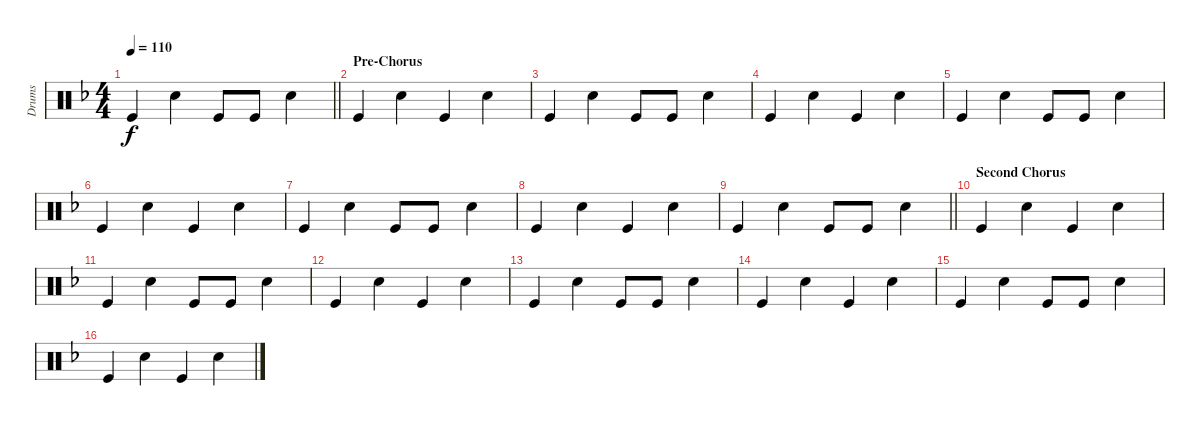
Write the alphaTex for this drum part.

\track ("Drums" "Drums") {instrument percussion}
\staff {score}
\articulation defaults
\ts (4 4)
\tempo 110
\clef neutral
\barLineRight lightlight
\ks dminor "Kick (hit)".4{dy f} "Snare (hit) 2".4 "Kick (hit)".8 "Kick (hit)".8 "Snare (hit) 2".4
|
\section ("" "Pre-Chorus")
\ks f "Kick (hit)".4 "Snare (hit) 2".4 "Kick (hit)".4 "Snare (hit) 2".4
|
"Kick (hit)".4 "Snare (hit) 2".4 "Kick (hit)".8 "Kick (hit)".8 "Snare (hit) 2".4 |
"Kick (hit)".4 "Snare (hit) 2".4 "Kick (hit)".4 "Snare (hit) 2".4 |
"Kick (hit)".4 "Snare (hit) 2".4 "Kick (hit)".8 "Kick (hit)".8 "Snare (hit) 2".4 |
\ks dminor "Kick (hit)".4 "Snare (hit) 2".4 "Kick (hit)".4 "Snare (hit) 2".4
|
"Kick (hit)".4 "Snare (hit) 2".4 "Kick (hit)".8 "Kick (hit)".8 "Snare (hit) 2".4 |
"Kick (hit)".4 "Snare (hit) 2".4 "Kick (hit)".4 "Snare (hit) 2".4 |
\barLineRight lightlight "Kick (hit)".4 "Snare (hit) 2".4 "Kick (hit)".8 "Kick (hit)".8 "Snare (hit) 2".4
|
\section ("" "Second Chorus")
"Kick (hit)".4 "Snare (hit) 2".4 "Kick (hit)".4 "Snare (hit) 2".4 |
"Kick (hit)".4 "Snare (hit) 2".4 "Kick (hit)".8 "Kick (hit)".8 "Snare (hit) 2".4 |
"Kick (hit)".4 "Snare (hit) 2".4 "Kick (hit)".4 "Snare (hit) 2".4 |
"Kick (hit)".4 "Snare (hit) 2".4 "Kick (hit)".8 "Kick (hit)".8 "Snare (hit) 2".4 |
"Kick (hit)".4 "Snare (hit) 2".4 "Kick (hit)".4 "Snare (hit) 2".4 |
"Kick (hit)".4 "Snare (hit) 2".4 "Kick (hit)".8 "Kick (hit)".8 "Snare (hit) 2".4 |
"Kick (hit)".4 "Snare (hit) 2".4 "Kick (hit)".4 "Snare (hit) 2".4
